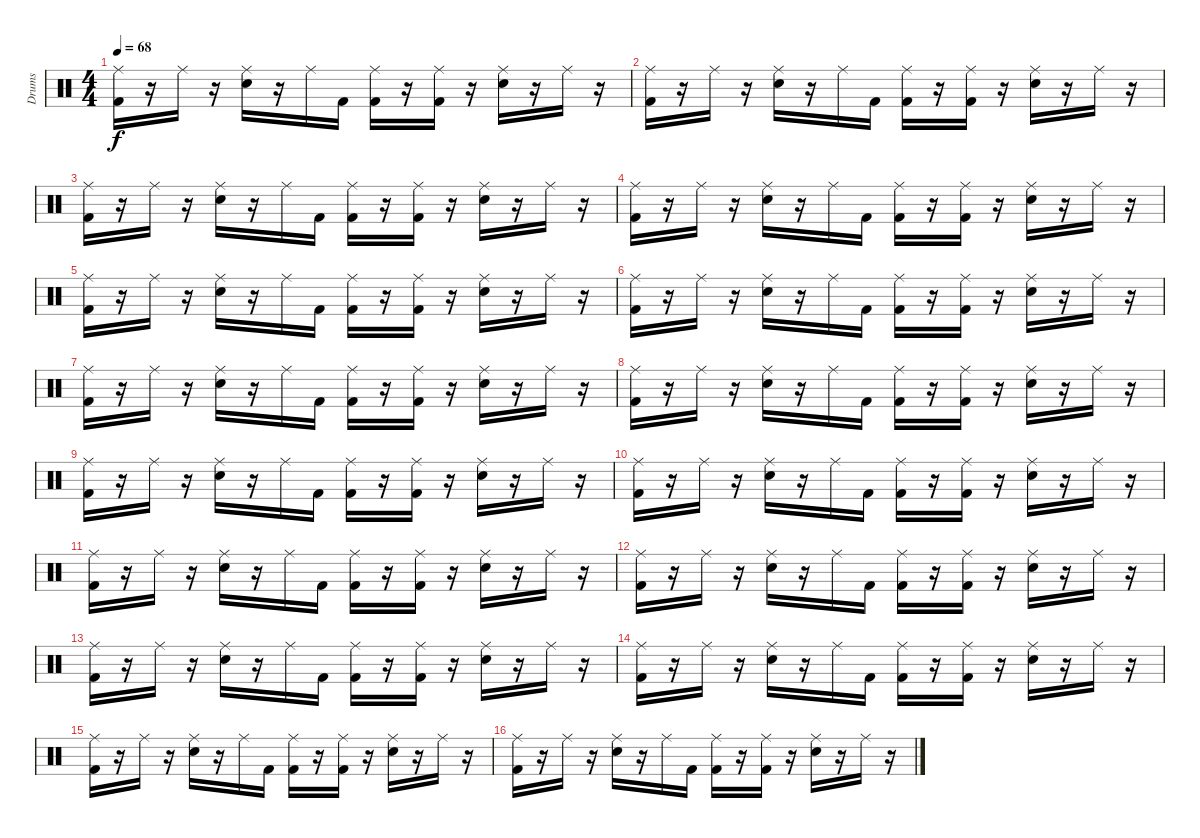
\track ("Drums" "Drums") {instrument percussion}
\staff {score}
\articulation defaults
\ts (4 4)
\tempo 68
\clef neutral
\ks c
("Ride (middle)" "Kick (hit) 2").16{dy f} r.16 "Ride (middle)".16 r.16 ("Ride (middle)" "Snare (hit) 2").16 r.16 "Ride (middle)".16 "Kick (hit) 2".16 ("Ride (middle)" "Kick (hit) 2").16 r.16 ("Ride (middle)" "Kick (hit) 2").16 r.16 ("Ride (middle)" "Snare (hit) 2").16 r.16 "Ride (middle)".16 r.16 |
("Ride (middle)" "Kick (hit) 2").16 r.16 "Ride (middle)".16 r.16 ("Ride (middle)" "Snare (hit) 2").16 r.16 "Ride (middle)".16 "Kick (hit) 2".16 ("Ride (middle)" "Kick (hit) 2").16 r.16 ("Ride (middle)" "Kick (hit) 2").16 r.16 ("Ride (middle)" "Snare (hit) 2").16 r.16 "Ride (middle)".16 r.16 |
("Ride (middle)" "Kick (hit) 2").16 r.16 "Ride (middle)".16 r.16 ("Ride (middle)" "Snare (hit) 2").16 r.16 "Ride (middle)".16 "Kick (hit) 2".16 ("Ride (middle)" "Kick (hit) 2").16 r.16 ("Ride (middle)" "Kick (hit) 2").16 r.16 ("Ride (middle)" "Snare (hit) 2").16 r.16 "Ride (middle)".16 r.16 |
("Ride (middle)" "Kick (hit) 2").16 r.16 "Ride (middle)".16 r.16 ("Ride (middle)" "Snare (hit) 2").16 r.16 "Ride (middle)".16 "Kick (hit) 2".16 ("Ride (middle)" "Kick (hit) 2").16 r.16 ("Ride (middle)" "Kick (hit) 2").16 r.16 ("Ride (middle)" "Snare (hit) 2").16 r.16 "Ride (middle)".16 r.16 |
("Ride (middle)" "Kick (hit) 2").16 r.16 "Ride (middle)".16 r.16 ("Ride (middle)" "Snare (hit) 2").16 r.16 "Ride (middle)".16 "Kick (hit) 2".16 ("Ride (middle)" "Kick (hit) 2").16 r.16 ("Ride (middle)" "Kick (hit) 2").16 r.16 ("Ride (middle)" "Snare (hit) 2").16 r.16 "Ride (middle)".16 r.16 |
("Ride (middle)" "Kick (hit) 2").16 r.16 "Ride (middle)".16 r.16 ("Ride (middle)" "Snare (hit) 2").16 r.16 "Ride (middle)".16 "Kick (hit) 2".16 ("Ride (middle)" "Kick (hit) 2").16 r.16 ("Ride (middle)" "Kick (hit) 2").16 r.16 ("Ride (middle)" "Snare (hit) 2").16 r.16 "Ride (middle)".16 r.16 |
("Ride (middle)" "Kick (hit) 2").16 r.16 "Ride (middle)".16 r.16 ("Ride (middle)" "Snare (hit) 2").16 r.16 "Ride (middle)".16 "Kick (hit) 2".16 ("Ride (middle)" "Kick (hit) 2").16 r.16 ("Ride (middle)" "Kick (hit) 2").16 r.16 ("Ride (middle)" "Snare (hit) 2").16 r.16 "Ride (middle)".16 r.16 |
("Ride (middle)" "Kick (hit) 2").16 r.16 "Ride (middle)".16 r.16 ("Ride (middle)" "Snare (hit) 2").16 r.16 "Ride (middle)".16 "Kick (hit) 2".16 ("Ride (middle)" "Kick (hit) 2").16 r.16 ("Ride (middle)" "Kick (hit) 2").16 r.16 ("Ride (middle)" "Snare (hit) 2").16 r.16 "Ride (middle)".16 r.16 |
("Ride (middle)" "Kick (hit) 2").16 r.16 "Ride (middle)".16 r.16 ("Ride (middle)" "Snare (hit) 2").16 r.16 "Ride (middle)".16 "Kick (hit) 2".16 ("Ride (middle)" "Kick (hit) 2").16 r.16 ("Ride (middle)" "Kick (hit) 2").16 r.16 ("Ride (middle)" "Snare (hit) 2").16 r.16 "Ride (middle)".16 r.16 |
("Ride (middle)" "Kick (hit) 2").16 r.16 "Ride (middle)".16 r.16 ("Ride (middle)" "Snare (hit) 2").16 r.16 "Ride (middle)".16 "Kick (hit) 2".16 ("Ride (middle)" "Kick (hit) 2").16 r.16 ("Ride (middle)" "Kick (hit) 2").16 r.16 ("Ride (middle)" "Snare (hit) 2").16 r.16 "Ride (middle)".16 r.16 |
("Ride (middle)" "Kick (hit) 2").16 r.16 "Ride (middle)".16 r.16 ("Ride (middle)" "Snare (hit) 2").16 r.16 "Ride (middle)".16 "Kick (hit) 2".16 ("Ride (middle)" "Kick (hit) 2").16 r.16 ("Ride (middle)" "Kick (hit) 2").16 r.16 ("Ride (middle)" "Snare (hit) 2").16 r.16 "Ride (middle)".16 r.16 |
("Ride (middle)" "Kick (hit) 2").16 r.16 "Ride (middle)".16 r.16 ("Ride (middle)" "Snare (hit) 2").16 r.16 "Ride (middle)".16 "Kick (hit) 2".16 ("Ride (middle)" "Kick (hit) 2").16 r.16 ("Ride (middle)" "Kick (hit) 2").16 r.16 ("Ride (middle)" "Snare (hit) 2").16 r.16 "Ride (middle)".16 r.16 |
("Ride (middle)" "Kick (hit) 2").16{volume 12} r.16 "Ride (middle)".16 r.16 ("Ride (middle)" "Snare (hit) 2").16 r.16 "Ride (middle)".16 "Kick (hit) 2".16{volume 10} ("Ride (middle)" "Kick (hit) 2").16 r.16 ("Ride (middle)" "Kick (hit) 2").16 r.16 ("Ride (middle)" "Snare (hit) 2").16 r.16 "Ride (middle)".16{volume 8} r.16 |
("Ride (middle)" "Kick (hit) 2").16 r.16 "Ride (middle)".16 r.16 ("Ride (middle)" "Snare (hit) 2").16 r.16 "Ride (middle)".16 "Kick (hit) 2".16{volume 6} ("Ride (middle)" "Kick (hit) 2").16 r.16 ("Ride (middle)" "Kick (hit) 2").16 r.16 ("Ride (middle)" "Snare (hit) 2").16 r.16 "Ride (middle)".16 r.16 |
("Ride (middle)" "Kick (hit) 2").16{volume 4} r.16 "Ride (middle)".16 r.16 ("Ride (middle)" "Snare (hit) 2").16 r.16 "Ride (middle)".16 "Kick (hit) 2".16 ("Ride (middle)" "Kick (hit) 2").16 r.16{volume 2} ("Ride (middle)" "Kick (hit) 2").16 r.16 ("Ride (middle)" "Snare (hit) 2").16 r.16 "Ride (middle)".16 r.16 |
("Ride (middle)" "Kick (hit) 2").16 r.16 "Ride (middle)".16 r.16 ("Ride (middle)" "Snare (hit) 2").16 r.16 "Ride (middle)".16 "Kick (hit) 2".16 ("Ride (middle)" "Kick (hit) 2").16 r.16{volume 0} ("Ride (middle)" "Kick (hit) 2").16 r.16 ("Ride (middle)" "Snare (hit) 2").16 r.16 "Ride (middle)".16 r.16
